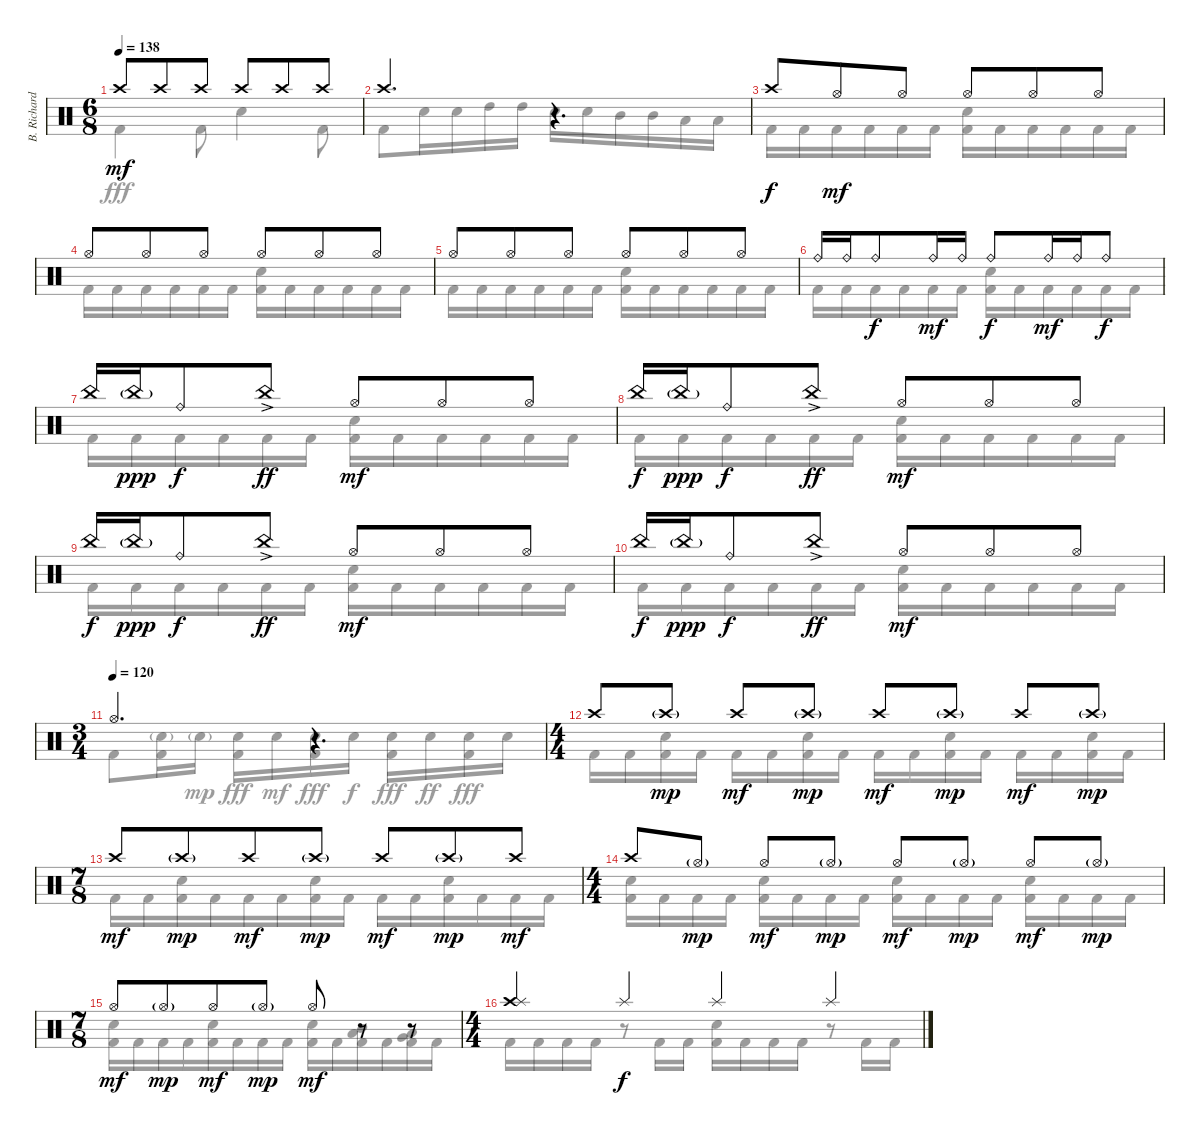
\track ("B. Richardson Drums" "B. Richard") {instrument percussion}
\staff {score}
\articulation defaults
\voice
\ts (6 8)
\tempo 138
\clef neutral
\ks c "Crash high (hit)".8{dy mf} "Crash high (hit)".8 "Crash high (hit)".8 "Crash high (hit)".8 "Crash high (hit)".8 "Crash high (hit)".8
|
"Crash high (hit)".4{d} r.4{d} |
"Crash high (hit)".8{dy f} "Hi-Hat (open)".8{dy mf} "Hi-Hat (open)".8 "Hi-Hat (open)".8 "Hi-Hat (open)".8 "Hi-Hat (open)".8 |
"Hi-Hat (open)".8 "Hi-Hat (open)".8 "Hi-Hat (open)".8 "Hi-Hat (open)".8 "Hi-Hat (open)".8 "Hi-Hat (open)".8 |
"Hi-Hat (open)".8 "Hi-Hat (open)".8 "Hi-Hat (open)".8 "Hi-Hat (open)".8 "Hi-Hat (open)".8 "Hi-Hat (open)".8 |
"Ride (bell)".16 "Ride (bell)".16 "Ride (bell)".8{dy f} "Ride (bell)".16{dy mf} "Ride (bell)".16 "Ride (bell)".8{dy f} "Ride (bell)".16{dy mf} "Ride (bell)".16 "Ride (bell)".8{dy f} |
"China (hit)".16 "China (hit)"{g}.16{dy ppp} "Ride (bell)".8{dy f} "China (hit)"{ac}.8{dy ff} "Hi-Hat (open)".8{dy mf} "Hi-Hat (open)".8 "Hi-Hat (open)".8 |
"China (hit)".16{dy f} "China (hit)"{g}.16{dy ppp} "Ride (bell)".8{dy f} "China (hit)"{ac}.8{dy ff} "Hi-Hat (open)".8{dy mf} "Hi-Hat (open)".8 "Hi-Hat (open)".8 |
"China (hit)".16{dy f} "China (hit)"{g}.16{dy ppp} "Ride (bell)".8{dy f} "China (hit)"{ac}.8{dy ff} "Hi-Hat (open)".8{dy mf} "Hi-Hat (open)".8 "Hi-Hat (open)".8 |
"China (hit)".16{dy f} "China (hit)"{g}.16{dy ppp} "Ride (bell)".8{dy f} "China (hit)"{ac}.8{dy ff} "Hi-Hat (open)".8{dy mf} "Hi-Hat (open)".8 "Hi-Hat (open)".8 |
\ts (3 4)
\tempo (120)
"Hi-Hat (open)".4{d} r.4{d} |
\ts (4 4)
"Crash high (hit)".8 "Crash high (hit)"{g}.8{dy mp} "Crash high (hit)".8{dy mf} "Crash high (hit)"{g}.8{dy mp} "Crash high (hit)".8{dy mf} "Crash high (hit)"{g}.8{dy mp} "Crash high (hit)".8{dy mf} "Crash high (hit)"{g}.8{dy mp} |
\ts (7 8)
"Crash high (hit)".8{dy mf} "Crash high (hit)"{g}.8{dy mp} "Crash high (hit)".8{dy mf} "Crash high (hit)"{g}.8{dy mp} "Crash high (hit)".8{dy mf} "Crash high (hit)"{g}.8{dy mp} "Crash high (hit)".8{dy mf} |
\ts (4 4)
"Crash high (hit)".8 "Hi-Hat (open)"{g}.8{dy mp} "Hi-Hat (open)".8{dy mf} "Hi-Hat (open)"{g}.8{dy mp} "Hi-Hat (open)".8{dy mf} "Hi-Hat (open)"{g}.8{dy mp} "Hi-Hat (open)".8{dy mf} "Hi-Hat (open)"{g}.8{dy mp} |
\ts (7 8)
"Hi-Hat (open)".8{dy mf} "Hi-Hat (open)"{g}.8{dy mp} "Hi-Hat (open)".8{dy mf} "Hi-Hat (open)"{g}.8{dy mp} "Hi-Hat (open)".8{dy mf} r.8 r.8 |
\ts (4 4)
("Crash high (hit)" "Splash (hit)").4 "Splash (hit)".4{dy f} "Splash (hit)".4 "Splash (hit)".4
\voice
\clef neutral
\ottava regular
\simile none
\ks c "Kick (hit) 2".4{dy fff} "Kick (hit) 2".8 "Electric Snare (hit)".4 "Kick (hit) 2".8
|
"Kick (hit) 2".8 "Electric Snare (hit)".16 "Electric Snare (hit)".16 "High Tom (hit)".16 "High Tom (hit)".16 "Electric Snare (hit)".16 "Electric Snare (hit)".16 "Mid Tom (hit)".16 "Mid Tom (hit)".16 "Low Tom (hit)".16 "Low Tom (hit)".16 |
"Kick (hit) 2".16 "Kick (hit) 2".16 "Kick (hit) 2".16 "Kick (hit) 2".16 "Kick (hit) 2".16 "Kick (hit) 2".16 ("Electric Snare (hit)" "Kick (hit) 2").16 "Kick (hit) 2".16 "Kick (hit) 2".16 "Kick (hit) 2".16 "Kick (hit) 2".16 "Kick (hit) 2".16 |
"Kick (hit) 2".16 "Kick (hit) 2".16 "Kick (hit) 2".16 "Kick (hit) 2".16 "Kick (hit) 2".16 "Kick (hit) 2".16 ("Electric Snare (hit)" "Kick (hit) 2").16 "Kick (hit) 2".16 "Kick (hit) 2".16 "Kick (hit) 2".16 "Kick (hit) 2".16 "Kick (hit) 2".16 |
"Kick (hit) 2".16 "Kick (hit) 2".16 "Kick (hit) 2".16 "Kick (hit) 2".16 "Kick (hit) 2".16 "Kick (hit) 2".16 ("Electric Snare (hit)" "Kick (hit) 2").16 "Kick (hit) 2".16 "Kick (hit) 2".16 "Kick (hit) 2".16 "Kick (hit) 2".16 "Kick (hit) 2".16 |
"Kick (hit) 2".16 "Kick (hit) 2".16 "Kick (hit) 2".16 "Kick (hit) 2".16 "Kick (hit) 2".16 "Kick (hit) 2".16 ("Electric Snare (hit)" "Kick (hit) 2").16 "Kick (hit) 2".16 "Kick (hit) 2".16 "Kick (hit) 2".16 "Kick (hit) 2".16 "Kick (hit) 2".16 |
"Kick (hit) 2".16 "Kick (hit) 2".16 "Kick (hit) 2".16 "Kick (hit) 2".16 "Kick (hit) 2".16 "Kick (hit) 2".16 ("Electric Snare (hit)" "Kick (hit) 2").16 "Kick (hit) 2".16 "Kick (hit) 2".16 "Kick (hit) 2".16 "Kick (hit) 2".16 "Kick (hit) 2".16 |
"Kick (hit) 2".16 "Kick (hit) 2".16 "Kick (hit) 2".16 "Kick (hit) 2".16 "Kick (hit) 2".16 "Kick (hit) 2".16 ("Electric Snare (hit)" "Kick (hit) 2").16 "Kick (hit) 2".16 "Kick (hit) 2".16 "Kick (hit) 2".16 "Kick (hit) 2".16 "Kick (hit) 2".16 |
"Kick (hit) 2".16 "Kick (hit) 2".16 "Kick (hit) 2".16 "Kick (hit) 2".16 "Kick (hit) 2".16 "Kick (hit) 2".16 ("Electric Snare (hit)" "Kick (hit) 2").16 "Kick (hit) 2".16 "Kick (hit) 2".16 "Kick (hit) 2".16 "Kick (hit) 2".16 "Kick (hit) 2".16 |
"Kick (hit) 2".16 "Kick (hit) 2".16 "Kick (hit) 2".16 "Kick (hit) 2".16 "Kick (hit) 2".16 "Kick (hit) 2".16 ("Electric Snare (hit)" "Kick (hit) 2").16 "Kick (hit) 2".16 "Kick (hit) 2".16 "Kick (hit) 2".16 "Kick (hit) 2".16 "Kick (hit) 2".16 |
"Kick (hit) 2".8 ("Electric Snare (hit)"{g} "Kick (hit) 2").16 "Electric Snare (hit)"{g}.16{dy mp} ("Electric Snare (hit)" "Kick (hit) 2").16{dy fff} "Electric Snare (hit)".16{dy mf} ("Electric Snare (hit)" "Kick (hit) 2").16{dy fff} "Electric Snare (hit)".16{dy f} ("Electric Snare (hit)" "Kick (hit) 2").16{dy fff} "Electric Snare (hit)".16{dy ff} ("Electric Snare (hit)" "Kick (hit) 2").16{dy fff} "Electric Snare (hit)".16 |
"Kick (hit) 2".16 "Kick (hit) 2".16 ("Electric Snare (hit)" "Kick (hit) 2").16 "Kick (hit) 2".16 "Kick (hit) 2".16 "Kick (hit) 2".16 ("Electric Snare (hit)" "Kick (hit) 2").16 "Kick (hit) 2".16 "Kick (hit) 2".16 "Kick (hit) 2".16 ("Electric Snare (hit)" "Kick (hit) 2").16 "Kick (hit) 2".16 "Kick (hit) 2".16 "Kick (hit) 2".16 ("Electric Snare (hit)" "Kick (hit) 2").16 "Kick (hit) 2".16 |
"Kick (hit) 2".16 "Kick (hit) 2".16 ("Electric Snare (hit)" "Kick (hit) 2").16 "Kick (hit) 2".16 "Kick (hit) 2".16 "Kick (hit) 2".16 ("Electric Snare (hit)" "Kick (hit) 2").16 "Kick (hit) 2".16 "Kick (hit) 2".16 "Kick (hit) 2".16 ("Electric Snare (hit)" "Kick (hit) 2").16 "Kick (hit) 2".16 "Kick (hit) 2".16 "Kick (hit) 2".16 |
("Electric Snare (hit)" "Kick (hit) 2").16 "Kick (hit) 2".16 "Kick (hit) 2".16 "Kick (hit) 2".16 ("Electric Snare (hit)" "Kick (hit) 2").16 "Kick (hit) 2".16 "Kick (hit) 2".16 "Kick (hit) 2".16 ("Electric Snare (hit)" "Kick (hit) 2").16 "Kick (hit) 2".16 "Kick (hit) 2".16 "Kick (hit) 2".16 ("Electric Snare (hit)" "Kick (hit) 2").16 "Kick (hit) 2".16 "Kick (hit) 2".16 "Kick (hit) 2".16 |
("Electric Snare (hit)" "Kick (hit) 2").16 "Kick (hit) 2".16 "Kick (hit) 2".16 "Kick (hit) 2".16 ("Electric Snare (hit)" "Kick (hit) 2").16 "Kick (hit) 2".16 "Kick (hit) 2".16 "Kick (hit) 2".16 ("Electric Snare (hit)" "Kick (hit) 2").16 "Kick (hit) 2".16 ("Mid Tom (hit)" "Low Tom (hit)" "Kick (hit) 2").16 "Kick (hit) 2".16 ("Low Tom (hit)" "Very Low Tom (hit)" "Kick (hit) 2").16 "Kick (hit) 2".16 |
"Kick (hit) 2".16 "Kick (hit) 2".16 "Kick (hit) 2".16 "Kick (hit) 2".16 r.8 "Kick (hit) 2".16 "Kick (hit) 2".16 ("Electric Snare (hit)" "Kick (hit) 2").16 "Kick (hit) 2".16 "Kick (hit) 2".16 "Kick (hit) 2".16 r.8 "Kick (hit) 2".16 "Kick (hit) 2".16
